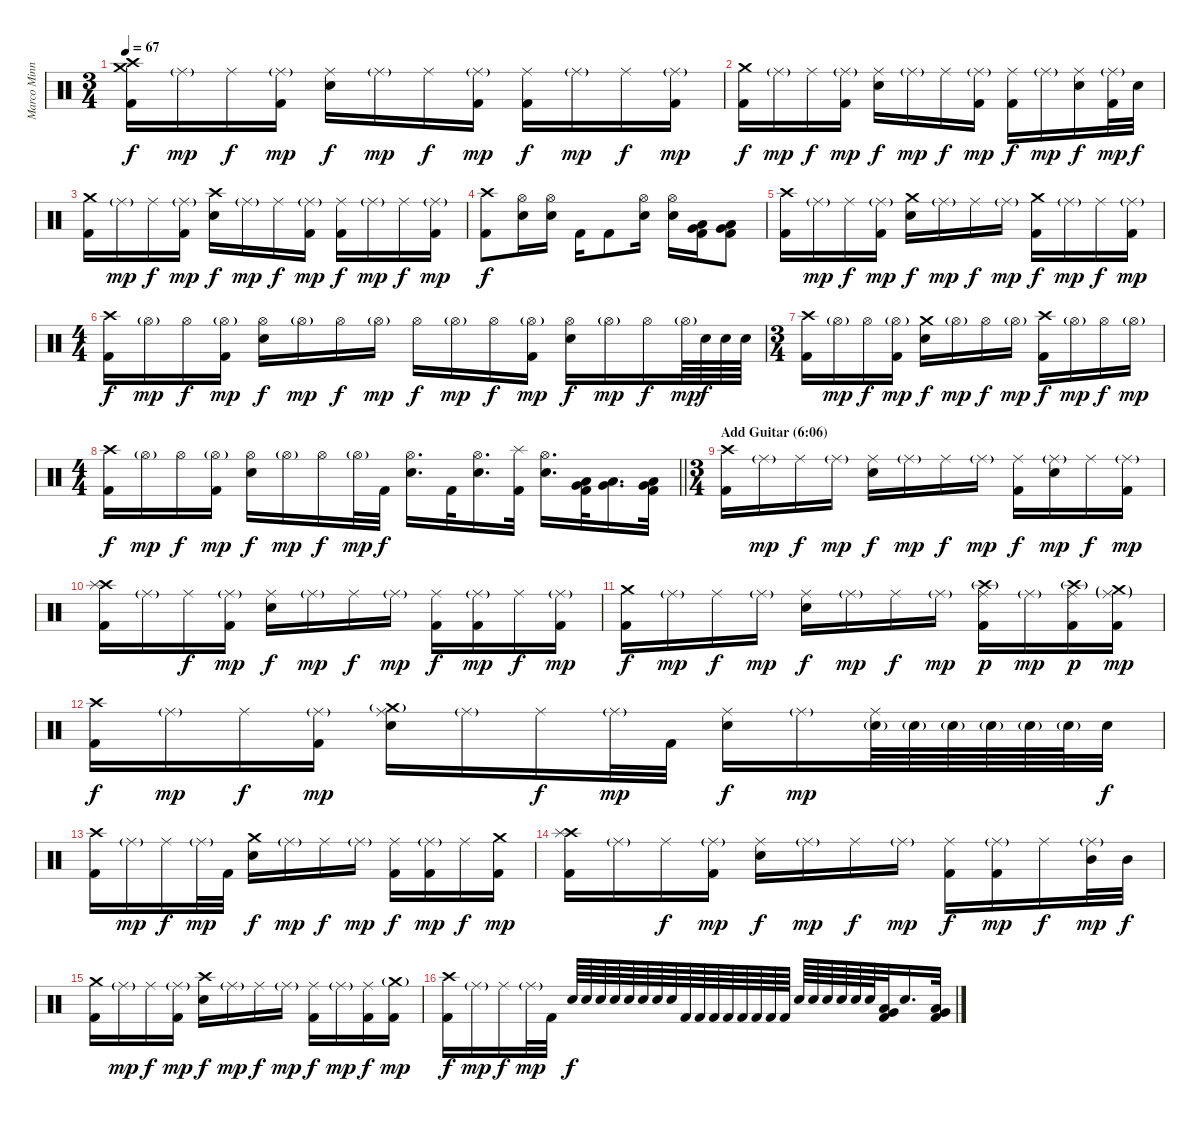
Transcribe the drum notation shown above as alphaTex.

\track ("Marco Minnemann" "Marco Minn") {instrument percussion}
\staff {score}
\articulation defaults
\ts (3 4)
\tempo 67
\clef neutral
\ks c
("Crash high (hit)" "Crash medium (hit)" "Kick (hit) 2").16{dy f} "Ride (middle)"{g}.16{dy mp} "Ride (middle)".16{dy f} ("Ride (middle)"{g} "Kick (hit) 2").16{dy mp} ("Ride (middle)" "Electric Snare (hit)").16{dy f} "Ride (middle)"{g}.16{dy mp} "Ride (middle)".16{dy f} ("Ride (middle)"{g} "Kick (hit) 2").16{dy mp} ("Ride (middle)" "Kick (hit) 2").16{dy f} "Ride (middle)"{g}.16{dy mp} "Ride (middle)".16{dy f} ("Ride (middle)"{g} "Kick (hit) 2").16{dy mp} |
("Crash medium (hit)" "Kick (hit) 2").16{dy f} "Ride (middle)"{g}.16{dy mp} "Ride (middle)".16{dy f} ("Ride (middle)"{g} "Kick (hit) 2").16{dy mp} ("Ride (middle)" "Electric Snare (hit)").16{dy f} "Ride (middle)"{g}.16{dy mp} "Ride (middle)".16{dy f} ("Ride (middle)"{g} "Kick (hit) 2").16{dy mp} ("Ride (middle)" "Kick (hit) 2").16{dy f} "Ride (middle)"{g}.16{dy mp} ("Ride (middle)" "Electric Snare (hit)").16{dy f} ("Ride (middle)"{g} "Kick (hit) 2").32{dy mp} "Electric Snare (hit)".32{dy f} |
("Crash medium (hit)" "Kick (hit) 2").16 "Ride (middle)"{g}.16{dy mp} "Ride (middle)".16{dy f} ("Ride (middle)"{g} "Kick (hit) 2").16{dy mp} ("Crash high (hit)" "Electric Snare (hit)").16{dy f} "Ride (middle)"{g}.16{dy mp} "Ride (middle)".16{dy f} ("Ride (middle)"{g} "Kick (hit) 2").16{dy mp} ("Ride (middle)" "Kick (hit) 2").16{dy f} "Ride (middle)"{g}.16{dy mp} "Ride (middle)".16{dy f} ("Ride (middle)"{g} "Kick (hit) 2").16{dy mp} |
("Crash high (hit)" "Kick (hit) 2").8{dy f} ("Hi-Hat (open)" "Electric Snare (hit)").16 ("Hi-Hat (open)" "Electric Snare (hit)").16 "Kick (hit) 2".16 "Kick (hit) 2".8 ("Hi-Hat (open)" "Electric Snare (hit)").16 ("Hi-Hat (open)" "Electric Snare (hit)").16 ("Low Tom (hit)" "Very Low Tom (hit)" "Kick (hit) 2").16 ("Very Low Tom (hit)" "Low Floor Tom (hit)" "Kick (hit) 2").8 |
("Crash high (hit)" "Kick (hit) 2").16 "Ride (middle)"{g}.16{dy mp} "Ride (middle)".16{dy f} ("Ride (middle)"{g} "Kick (hit) 2").16{dy mp} ("Crash medium (hit)" "Electric Snare (hit)").16{dy f} "Ride (middle)"{g}.16{dy mp} "Ride (middle)".16{dy f} "Ride (middle)"{g}.16{dy mp} ("Crash medium (hit)" "Kick (hit) 2").16{dy f} "Ride (middle)"{g}.16{dy mp} "Ride (middle)".16{dy f} ("Ride (middle)"{g} "Kick (hit) 2").16{dy mp} |
\ts (4 4)
("Crash high (hit)" "Kick (hit) 2").16{dy f} "Hi-Hat (open)"{g}.16{dy mp} "Hi-Hat (open)".16{dy f} ("Hi-Hat (open)"{g} "Kick (hit) 2").16{dy mp} ("Hi-Hat (open)" "Electric Snare (hit)").16{dy f} "Hi-Hat (open)"{g}.16{dy mp} "Hi-Hat (open)".16{dy f} "Hi-Hat (open)"{g}.16{dy mp} "Hi-Hat (open)".16{dy f} "Hi-Hat (open)"{g}.16{dy mp} "Hi-Hat (open)".16{dy f} ("Hi-Hat (open)"{g} "Kick (hit) 2").16{dy mp} ("Hi-Hat (open)" "Electric Snare (hit)").16{dy f} "Hi-Hat (open)"{g}.16{dy mp} "Hi-Hat (open)".16{dy f} "Hi-Hat (open)"{g}.64{dy mp} "Electric Snare (hit)".64{dy f} "Electric Snare (hit)".64 "Electric Snare (hit)".64 |
\ts (3 4)
("Crash high (hit)" "Kick (hit) 2").16 "Hi-Hat (open)"{g}.16{dy mp} "Hi-Hat (open)".16{dy f} ("Hi-Hat (open)"{g} "Kick (hit) 2").16{dy mp} ("Crash medium (hit)" "Electric Snare (hit)").16{dy f} "Hi-Hat (open)"{g}.16{dy mp} "Hi-Hat (open)".16{dy f} "Hi-Hat (open)"{g}.16{dy mp} ("Crash high (hit)" "Kick (hit) 2").16{dy f} "Hi-Hat (open)"{g}.16{dy mp} "Hi-Hat (open)".16{dy f} "Hi-Hat (open)"{g}.16{dy mp} |
\ts (4 4)
\barLineRight lightlight
("Crash high (hit)" "Kick (hit) 2").16{dy f} "Hi-Hat (open)"{g}.16{dy mp} "Hi-Hat (open)".16{dy f} ("Hi-Hat (open)"{g} "Kick (hit) 2").16{dy mp} ("Hi-Hat (open)" "Electric Snare (hit)").16{dy f} "Hi-Hat (open)"{g}.16{dy mp} "Hi-Hat (open)".16{dy f} "Hi-Hat (open)"{g}.32{dy mp} "Kick (hit) 2".32{dy f} ("Hi-Hat (open)" "Electric Snare (hit)").16{d} "Kick (hit) 2".32 ("Hi-Hat (open)" "Electric Snare (hit)").16{d} ("Splash (hit)" "Kick (hit) 2").32 ("Hi-Hat (open)" "Electric Snare (hit)").16{d} ("Low Tom (hit)" "Very Low Tom (hit)" "Kick (hit) 2").32 ("Low Tom (hit)" "Very Low Tom (hit)").16{d} ("Very Low Tom (hit)" "Low Floor Tom (hit)" "Kick (hit) 2").32 |
\ts (3 4)
\section ("" "Add Guitar (6:06)")
("Crash high (hit)" "Kick (hit) 2").16 "Ride (middle)"{g}.16{dy mp} "Ride (middle)".16{dy f} "Ride (middle)"{g}.16{dy mp} ("Ride (middle)" "Electric Snare (hit)").16{dy f} "Ride (middle)"{g}.16{dy mp} "Ride (middle)".16{dy f} "Ride (middle)"{g}.16{dy mp} ("Ride (middle)" "Kick (hit) 2").16{dy f} ("Ride (middle)"{g} "Electric Snare (hit)").16{dy mp} "Ride (middle)".16{dy f} ("Ride (middle)"{g} "Kick (hit) 2").16{dy mp} |
("Crash high (hit)" "Splash (hit)" "Kick (hit) 2").16 "Ride (middle)"{g}.16 "Ride (middle)".16{dy f} ("Ride (middle)"{g} "Kick (hit) 2").16{dy mp} ("Ride (middle)" "Electric Snare (hit)").16{dy f} "Ride (middle)"{g}.16{dy mp} "Ride (middle)".16{dy f} "Ride (middle)"{g}.16{dy mp} ("Ride (middle)" "Kick (hit) 2").16{dy f} ("Ride (middle)"{g} "Kick (hit) 2").16{dy mp} "Ride (middle)".16{dy f} ("Ride (middle)"{g} "Kick (hit) 2").16{dy mp} |
("Crash medium (hit)" "Kick (hit) 2").16{dy f} "Ride (middle)"{g}.16{dy mp} "Ride (middle)".16{dy f} "Ride (middle)"{g}.16{dy mp} ("Ride (middle)" "Electric Snare (hit)").16{dy f} "Ride (middle)"{g}.16{dy mp} "Ride (middle)".16{dy f} "Ride (middle)"{g}.16{dy mp} ("Ride (middle)" "Crash high (hit)"{g} "Kick (hit) 2").16{dy p} "Ride (middle)"{g}.16{dy mp} ("Ride (middle)" "Crash high (hit)"{g} "Kick (hit) 2").16{dy p} ("Ride (middle)"{g} "Crash medium (hit)"{g} "Kick (hit) 2").16{dy mp} |
("Crash high (hit)" "Kick (hit) 2").16{dy f} "Ride (middle)"{g}.16{dy mp} "Ride (middle)".16{dy f} ("Ride (middle)"{g} "Kick (hit) 2").16{dy mp} ("Ride (middle)" "Crash medium (hit)"{g} "Electric Snare (hit)").16 "Ride (middle)"{g}.16 "Ride (middle)".16{dy f} "Ride (middle)"{g}.32{dy mp} "Kick (hit) 2".32 ("Ride (middle)" "Electric Snare (hit)").16{dy f} "Ride (middle)"{g}.16{dy mp} ("Ride (middle)" "Electric Snare (hit)"{g}).64 "Electric Snare (hit)"{g}.64 "Electric Snare (hit)"{g}.64 "Electric Snare (hit)"{g}.64 "Electric Snare (hit)"{g}.64 "Electric Snare (hit)"{g}.64 "Electric Snare (hit)".32{dy f} |
("Crash high (hit)" "Kick (hit) 2").16 "Ride (middle)"{g}.16{dy mp} "Ride (middle)".16{dy f} "Ride (middle)"{g}.32{dy mp} "Kick (hit) 2".32 ("Crash medium (hit)" "Electric Snare (hit)").16{dy f} "Ride (middle)"{g}.16{dy mp} "Ride (middle)".16{dy f} "Ride (middle)"{g}.16{dy mp} ("Ride (middle)" "Kick (hit) 2").16{dy f} ("Ride (middle)"{g} "Kick (hit) 2").16{dy mp} "Ride (middle)".16{dy f} ("Crash medium (hit)" "Kick (hit) 2").16{dy mp} |
("Crash high (hit)" "Splash (hit)" "Kick (hit) 2").16 "Ride (middle)"{g}.16 "Ride (middle)".16{dy f} ("Ride (middle)"{g} "Kick (hit) 2").16{dy mp} ("Ride (middle)" "Electric Snare (hit)").16{dy f} "Ride (middle)"{g}.16{dy mp} "Ride (middle)".16{dy f} "Ride (middle)"{g}.16{dy mp} ("Ride (middle)" "Kick (hit) 2").16{dy f} ("Ride (middle)"{g} "Kick (hit) 2").16{dy mp} "Ride (middle)".16{dy f} ("Ride (middle)"{g} "Mid Tom (hit)").32{dy mp} "Mid Tom (hit)".32{dy f} |
("Crash medium (hit)" "Kick (hit) 2").16 "Ride (middle)"{g}.16{dy mp} "Ride (middle)".16{dy f} ("Ride (middle)"{g} "Kick (hit) 2").16{dy mp} ("Crash high (hit)" "Electric Snare (hit)").16{dy f} "Ride (middle)"{g}.16{dy mp} "Ride (middle)".16{dy f} "Ride (middle)"{g}.16{dy mp} ("Ride (middle)" "Kick (hit) 2").16{dy f} "Ride (middle)"{g}.16{dy mp} ("Ride (middle)" "Kick (hit) 2").16{dy f} ("Crash medium (hit)"{g} "Kick (hit) 2").16{dy mp} |
("Crash high (hit)" "Kick (hit) 2").16{dy f} "Ride (middle)"{g}.16{dy mp} "Ride (middle)".16{dy f} "Ride (middle)"{g}.32{dy mp} "Kick (hit) 2".32 "Electric Snare (hit)".64{dy f} "Electric Snare (hit)".64 "Electric Snare (hit)".64 "Electric Snare (hit)".64 "Electric Snare (hit)".64 "Electric Snare (hit)".64 "Electric Snare (hit)".64 "Electric Snare (hit)".64 "Kick (hit) 2".64 "Kick (hit) 2".64 "Kick (hit) 2".64 "Kick (hit) 2".64 "Kick (hit) 2".64 "Kick (hit) 2".64 "Kick (hit) 2".64 "Kick (hit) 2".64 "Electric Snare (hit)".64 "Electric Snare (hit)".64 "Electric Snare (hit)".64 "Electric Snare (hit)".64 "Electric Snare (hit)".64 "Electric Snare (hit)".64 ("Very Low Tom (hit)" "Low Floor Tom (hit)" "Kick (hit) 2").32 "Electric Snare (hit)".16{d} ("Very Low Tom (hit)" "Low Floor Tom (hit)" "Kick (hit) 2").32
